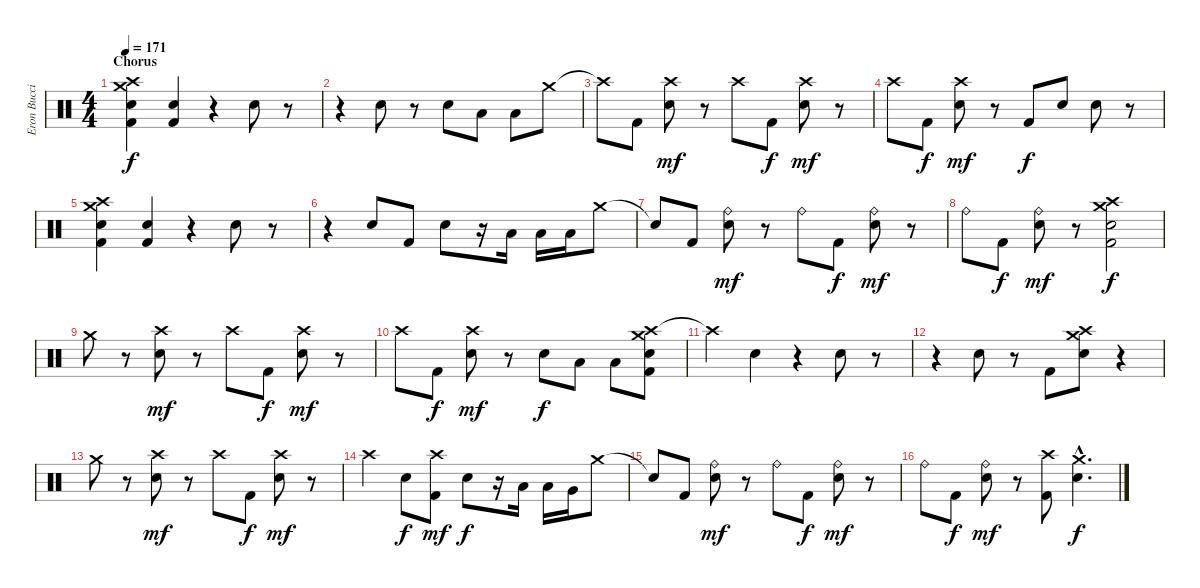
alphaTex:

\track ("Eron Bucciarelli (Drums)" "Eron Bucci") {instrument percussion}
\staff {score}
\articulation defaults
\ts (4 4)
\section ("" "Chorus")
\tempo 171
\clef neutral
\ks c
("Crash high (hit)" "Crash medium (hit)" "Snare (hit) 2" "Kick (hit) 2").4{dy f} ("Snare (hit) 2" "Kick (hit) 2").4 r.4 "Snare (hit) 2".8 r.8 |
r.4 "Snare (hit) 2".8 r.8 "Snare (hit) 2".8 "Low Tom (hit)".8 "Low Floor Tom (hit)".8 "Crash medium (hit)".8 |
"Crash high (hit)"{t}.8 "Kick (hit) 2".8 ("Crash high (hit)" "Snare (hit) 2").8{dy mf} r.8 "Crash high (hit)".8 "Kick (hit) 2".8{dy f} ("Crash high (hit)" "Snare (hit) 2").8{dy mf} r.8 |
"Crash high (hit)".8 "Kick (hit) 2".8{dy f} ("Crash high (hit)" "Snare (hit) 2").8{dy mf} r.8 "Kick (hit) 2".8{dy f} "Snare (hit) 2".8 "Snare (hit) 2".8 r.8 |
("Crash medium (hit)" "Crash high (hit)" "Snare (hit) 2" "Kick (hit) 2").4 ("Snare (hit) 2" "Kick (hit) 2").4 r.4 "Snare (hit) 2".8 r.8 |
r.4 "Snare (hit) 2".8 "Kick (hit) 2".8 "Snare (hit) 2".8 r.16 "Low Tom (hit)".16 "Low Tom (hit)".16 "Low Floor Tom (hit)".16 "Crash medium (hit)".8 |
"Snare (hit)"{t}.8 "Kick (hit) 2".8 ("Ride (bell)" "Snare (hit) 2").8{dy mf} r.8 "Ride (bell)".8 "Kick (hit) 2".8{dy f} ("Ride (bell)" "Snare (hit) 2").8{dy mf} r.8 |
"Ride (bell)".8 "Kick (hit) 2".8{dy f} ("Ride (bell)" "Snare (hit) 2").8{dy mf} r.8 ("Crash high (hit)" "Crash medium (hit)" "Snare (hit) 2" "Kick (hit) 2").2{dy f} |
"Crash medium (hit)".8 r.8 ("Crash high (hit)" "Snare (hit) 2").8{dy mf} r.8 "Crash high (hit)".8 "Kick (hit) 2".8{dy f} ("Crash high (hit)" "Snare (hit) 2").8{dy mf} r.8 |
"Crash high (hit)".8 "Kick (hit) 2".8{dy f} ("Crash high (hit)" "Snare (hit) 2").8{dy mf} r.8 "Snare (hit) 2".8{dy f} "Low Tom (hit)".8 "Low Floor Tom (hit)".8 ("Crash high (hit)" "Crash medium (hit)" "Snare (hit) 2" "Kick (hit) 2").8 |
"Crash high (hit)"{t}.4 "Snare (hit) 2".4 r.4 "Snare (hit) 2".8 r.8 |
r.4 "Snare (hit) 2".8 r.8 "Kick (hit) 2".8 ("Crash medium (hit)" "Crash high (hit)" "Snare (hit) 2").8 r.4 |
"Crash medium (hit)".8 r.8 ("Crash high (hit)" "Snare (hit) 2").8{dy mf} r.8 "Crash high (hit)".8 "Kick (hit) 2".8{dy f} ("Crash high (hit)" "Snare (hit) 2").8{dy mf} r.8 |
"Crash high (hit)".4 "Snare (hit) 2".8{dy f} ("Crash high (hit)" "Kick (hit) 2").8{dy mf} "Snare (hit) 2".8{dy f} r.16 "Low Tom (hit)".16 "Low Tom (hit)".16 "Very Low Tom (hit)".16 "Crash medium (hit)".8 |
"Snare (hit)"{t}.8 "Kick (hit) 2".8 ("Ride (bell)" "Snare (hit) 2").8{dy mf} r.8 "Ride (bell)".8 "Kick (hit) 2".8{dy f} ("Ride (bell)" "Snare (hit) 2").8{dy mf} r.8 |
"Ride (bell)".8 "Kick (hit) 2".8{dy f} ("Ride (bell)" "Snare (hit) 2").8{dy mf} r.8 ("Crash high (hit)" "Kick (hit) 2").8 ("Crash medium (hit)"{hac} "Snare (hit) 2"{hac}).4{d dy f}
